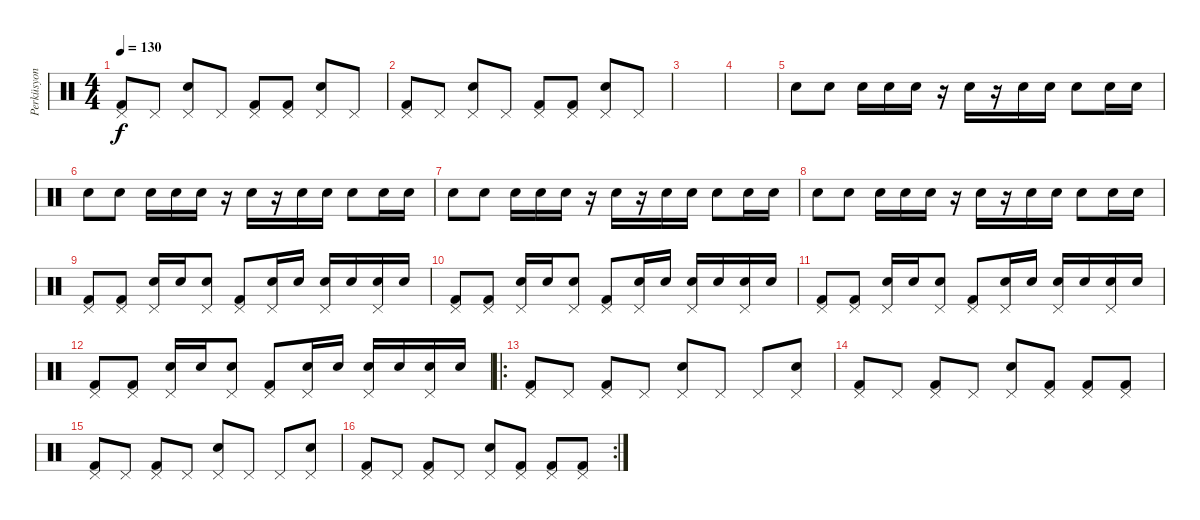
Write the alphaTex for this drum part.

\track ("Perküsyon" "Perküsyon") {instrument percussion}
\staff {score}
\articulation defaults
\ts (4 4)
\tempo 130
\clef neutral
\ks c
("Pedal Hi-Hat (hit)" "Kick (hit) 2").8{dy f} "Pedal Hi-Hat (hit)".8 ("Pedal Hi-Hat (hit)" "Electric Snare (hit)").8 "Pedal Hi-Hat (hit)".8 ("Pedal Hi-Hat (hit)" "Kick (hit) 2").8 ("Pedal Hi-Hat (hit)" "Kick (hit) 2").8 ("Pedal Hi-Hat (hit)" "Electric Snare (hit)").8 "Pedal Hi-Hat (hit)".8 |
("Pedal Hi-Hat (hit)" "Kick (hit) 2").8 "Pedal Hi-Hat (hit)".8 ("Pedal Hi-Hat (hit)" "Electric Snare (hit)").8 "Pedal Hi-Hat (hit)".8 ("Pedal Hi-Hat (hit)" "Kick (hit) 2").8 ("Pedal Hi-Hat (hit)" "Kick (hit) 2").8 ("Pedal Hi-Hat (hit)" "Electric Snare (hit)").8 "Pedal Hi-Hat (hit)".8 |
|
|
"Electric Snare (hit)".8 "Electric Snare (hit)".8 "Electric Snare (hit)".16 "Electric Snare (hit)".16 "Electric Snare (hit)".16 r.16 "Electric Snare (hit)".16 r.16 "Electric Snare (hit)".16 "Electric Snare (hit)".16 "Electric Snare (hit)".8 "Electric Snare (hit)".16 "Electric Snare (hit)".16 |
"Electric Snare (hit)".8 "Electric Snare (hit)".8 "Electric Snare (hit)".16 "Electric Snare (hit)".16 "Electric Snare (hit)".16 r.16 "Electric Snare (hit)".16 r.16 "Electric Snare (hit)".16 "Electric Snare (hit)".16 "Electric Snare (hit)".8 "Electric Snare (hit)".16 "Electric Snare (hit)".16 |
"Electric Snare (hit)".8 "Electric Snare (hit)".8 "Electric Snare (hit)".16 "Electric Snare (hit)".16 "Electric Snare (hit)".16 r.16 "Electric Snare (hit)".16 r.16 "Electric Snare (hit)".16 "Electric Snare (hit)".16 "Electric Snare (hit)".8 "Electric Snare (hit)".16 "Electric Snare (hit)".16 |
"Electric Snare (hit)".8 "Electric Snare (hit)".8 "Electric Snare (hit)".16 "Electric Snare (hit)".16 "Electric Snare (hit)".16 r.16 "Electric Snare (hit)".16 r.16 "Electric Snare (hit)".16 "Electric Snare (hit)".16 "Electric Snare (hit)".8 "Electric Snare (hit)".16 "Electric Snare (hit)".16 |
("Pedal Hi-Hat (hit)" "Kick (hit) 2").8 ("Pedal Hi-Hat (hit)" "Kick (hit) 2").8 ("Pedal Hi-Hat (hit)" "Electric Snare (hit)").16 "Electric Snare (hit)".16 ("Pedal Hi-Hat (hit)" "Electric Snare (hit)").8 ("Pedal Hi-Hat (hit)" "Kick (hit) 2").8 ("Pedal Hi-Hat (hit)" "Electric Snare (hit)").16 "Electric Snare (hit)".16 ("Pedal Hi-Hat (hit)" "Electric Snare (hit)").16 "Electric Snare (hit)".16 ("Pedal Hi-Hat (hit)" "Electric Snare (hit)").16 "Electric Snare (hit)".16 |
("Pedal Hi-Hat (hit)" "Kick (hit) 2").8 ("Pedal Hi-Hat (hit)" "Kick (hit) 2").8 ("Pedal Hi-Hat (hit)" "Electric Snare (hit)").16 "Electric Snare (hit)".16 ("Pedal Hi-Hat (hit)" "Electric Snare (hit)").8 ("Pedal Hi-Hat (hit)" "Kick (hit) 2").8 ("Pedal Hi-Hat (hit)" "Electric Snare (hit)").16 "Electric Snare (hit)".16 ("Pedal Hi-Hat (hit)" "Electric Snare (hit)").16 "Electric Snare (hit)".16 ("Pedal Hi-Hat (hit)" "Electric Snare (hit)").16 "Electric Snare (hit)".16 |
("Pedal Hi-Hat (hit)" "Kick (hit) 2").8 ("Pedal Hi-Hat (hit)" "Kick (hit) 2").8 ("Pedal Hi-Hat (hit)" "Electric Snare (hit)").16 "Electric Snare (hit)".16 ("Pedal Hi-Hat (hit)" "Electric Snare (hit)").8 ("Pedal Hi-Hat (hit)" "Kick (hit) 2").8 ("Pedal Hi-Hat (hit)" "Electric Snare (hit)").16 "Electric Snare (hit)".16 ("Pedal Hi-Hat (hit)" "Electric Snare (hit)").16 "Electric Snare (hit)".16 ("Pedal Hi-Hat (hit)" "Electric Snare (hit)").16 "Electric Snare (hit)".16 |
("Pedal Hi-Hat (hit)" "Kick (hit) 2").8 ("Pedal Hi-Hat (hit)" "Kick (hit) 2").8 ("Pedal Hi-Hat (hit)" "Electric Snare (hit)").16 "Electric Snare (hit)".16 ("Pedal Hi-Hat (hit)" "Electric Snare (hit)").8 ("Pedal Hi-Hat (hit)" "Kick (hit) 2").8 ("Pedal Hi-Hat (hit)" "Electric Snare (hit)").16 "Electric Snare (hit)".16 ("Pedal Hi-Hat (hit)" "Electric Snare (hit)").16 "Electric Snare (hit)".16 ("Pedal Hi-Hat (hit)" "Electric Snare (hit)").16 "Electric Snare (hit)".16 |
\ro
("Pedal Hi-Hat (hit)" "Kick (hit) 2").8 "Pedal Hi-Hat (hit)".8 ("Pedal Hi-Hat (hit)" "Kick (hit) 2").8 "Pedal Hi-Hat (hit)".8 ("Pedal Hi-Hat (hit)" "Electric Snare (hit)").8 "Pedal Hi-Hat (hit)".8 "Pedal Hi-Hat (hit)".8 ("Pedal Hi-Hat (hit)" "Electric Snare (hit)").8 |
("Pedal Hi-Hat (hit)" "Kick (hit) 2").8 "Pedal Hi-Hat (hit)".8 ("Pedal Hi-Hat (hit)" "Kick (hit) 2").8 "Pedal Hi-Hat (hit)".8 ("Pedal Hi-Hat (hit)" "Electric Snare (hit)").8 ("Pedal Hi-Hat (hit)" "Kick (hit) 2").8 ("Pedal Hi-Hat (hit)" "Kick (hit) 2").8 ("Pedal Hi-Hat (hit)" "Kick (hit) 2").8 |
("Pedal Hi-Hat (hit)" "Kick (hit) 2").8 "Pedal Hi-Hat (hit)".8 ("Pedal Hi-Hat (hit)" "Kick (hit) 2").8 "Pedal Hi-Hat (hit)".8 ("Pedal Hi-Hat (hit)" "Electric Snare (hit)").8 "Pedal Hi-Hat (hit)".8 "Pedal Hi-Hat (hit)".8 ("Pedal Hi-Hat (hit)" "Electric Snare (hit)").8 |
\rc 2
("Pedal Hi-Hat (hit)" "Kick (hit) 2").8 "Pedal Hi-Hat (hit)".8 ("Pedal Hi-Hat (hit)" "Kick (hit) 2").8 "Pedal Hi-Hat (hit)".8 ("Pedal Hi-Hat (hit)" "Electric Snare (hit)").8 ("Pedal Hi-Hat (hit)" "Kick (hit) 2").8 ("Pedal Hi-Hat (hit)" "Kick (hit) 2").8 ("Pedal Hi-Hat (hit)" "Kick (hit) 2").8
